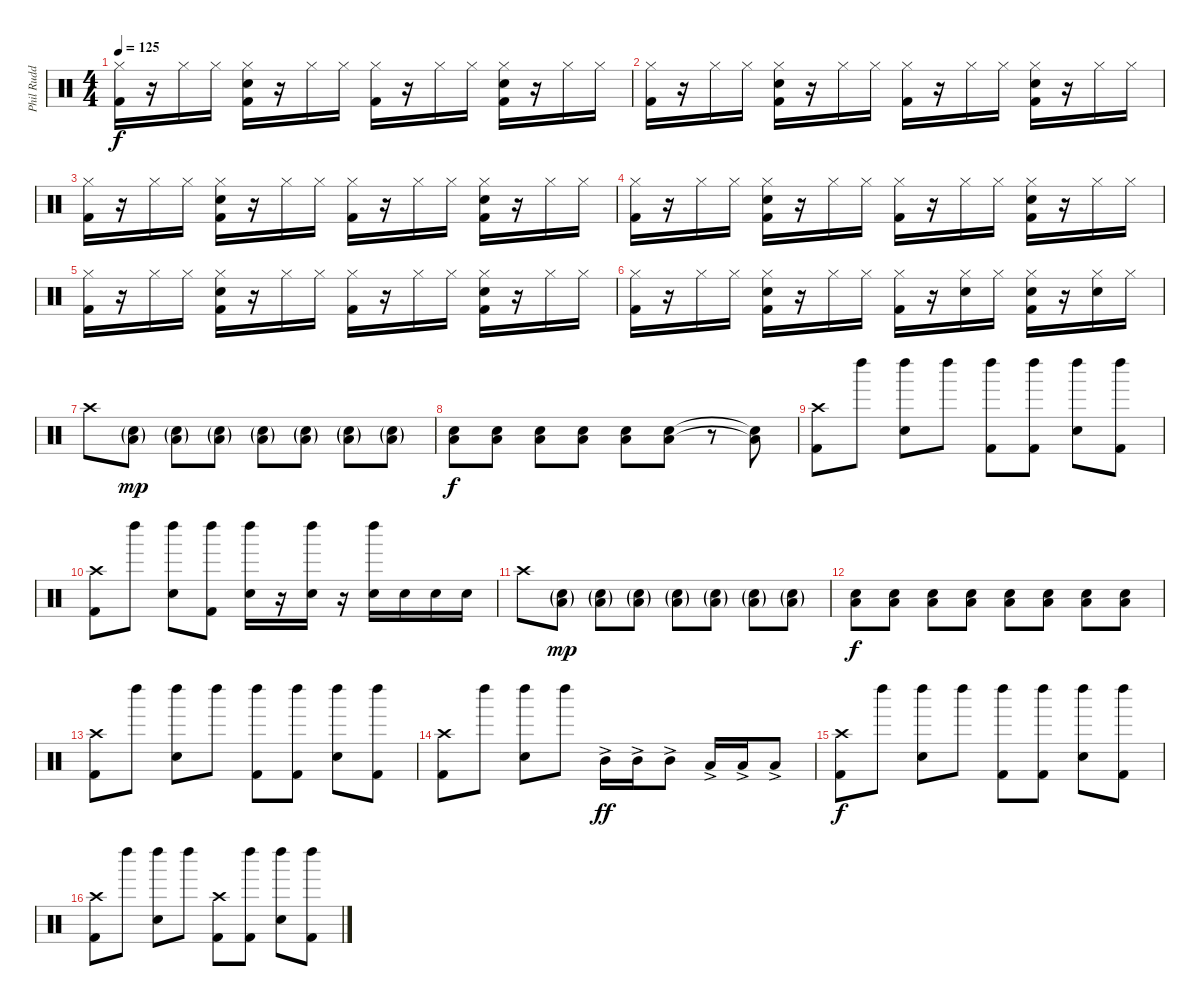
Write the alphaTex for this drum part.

\track ("Phil Rudd" "Phil Rudd") {instrument percussion}
\staff {score}
\articulation defaults
\ts (4 4)
\tempo 125
\clef neutral
\ks c
("Hi-Hat (closed)" "Kick (hit) 2").16{dy f} r.16 "Hi-Hat (closed)".16 "Hi-Hat (closed)".16 ("Hi-Hat (closed)" "Snare (hit) 2" "Kick (hit) 2").16 r.16 "Hi-Hat (closed)".16 "Hi-Hat (closed)".16 ("Hi-Hat (closed)" "Kick (hit) 2").16 r.16 "Hi-Hat (closed)".16 "Hi-Hat (closed)".16 ("Hi-Hat (closed)" "Snare (hit) 2" "Kick (hit) 2").16 r.16 "Hi-Hat (closed)".16 "Hi-Hat (closed)".16 |
("Hi-Hat (closed)" "Kick (hit) 2").16 r.16 "Hi-Hat (closed)".16 "Hi-Hat (closed)".16 ("Hi-Hat (closed)" "Snare (hit) 2" "Kick (hit) 2").16 r.16 "Hi-Hat (closed)".16 "Hi-Hat (closed)".16 ("Hi-Hat (closed)" "Kick (hit) 2").16 r.16 "Hi-Hat (closed)".16 "Hi-Hat (closed)".16 ("Hi-Hat (closed)" "Snare (hit) 2" "Kick (hit) 2").16 r.16 "Hi-Hat (closed)".16 "Hi-Hat (closed)".16 |
("Hi-Hat (closed)" "Kick (hit) 2").16 r.16 "Hi-Hat (closed)".16 "Hi-Hat (closed)".16 ("Hi-Hat (closed)" "Snare (hit) 2" "Kick (hit) 2").16 r.16 "Hi-Hat (closed)".16 "Hi-Hat (closed)".16 ("Hi-Hat (closed)" "Kick (hit) 2").16 r.16 "Hi-Hat (closed)".16 "Hi-Hat (closed)".16 ("Hi-Hat (closed)" "Snare (hit) 2" "Kick (hit) 2").16 r.16 "Hi-Hat (closed)".16 "Hi-Hat (closed)".16 |
("Hi-Hat (closed)" "Kick (hit) 2").16 r.16 "Hi-Hat (closed)".16 "Hi-Hat (closed)".16 ("Hi-Hat (closed)" "Snare (hit) 2" "Kick (hit) 2").16 r.16 "Hi-Hat (closed)".16 "Hi-Hat (closed)".16 ("Hi-Hat (closed)" "Kick (hit) 2").16 r.16 "Hi-Hat (closed)".16 "Hi-Hat (closed)".16 ("Hi-Hat (closed)" "Snare (hit) 2" "Kick (hit) 2").16 r.16 "Hi-Hat (closed)".16 "Hi-Hat (closed)".16 |
("Hi-Hat (closed)" "Kick (hit) 2").16 r.16 "Hi-Hat (closed)".16 "Hi-Hat (closed)".16 ("Hi-Hat (closed)" "Snare (hit) 2" "Kick (hit) 2").16 r.16 "Hi-Hat (closed)".16 "Hi-Hat (closed)".16 ("Hi-Hat (closed)" "Kick (hit) 2").16 r.16 "Hi-Hat (closed)".16 "Hi-Hat (closed)".16 ("Hi-Hat (closed)" "Snare (hit) 2" "Kick (hit) 2").16 r.16 "Hi-Hat (closed)".16 "Hi-Hat (closed)".16 |
("Hi-Hat (closed)" "Kick (hit) 2").16 r.16 "Hi-Hat (closed)".16 "Hi-Hat (closed)".16 ("Hi-Hat (closed)" "Snare (hit) 2" "Kick (hit) 2").16 r.16 "Hi-Hat (closed)".16 "Hi-Hat (closed)".16 ("Hi-Hat (closed)" "Kick (hit) 2").16 r.16 ("Hi-Hat (closed)" "Snare (hit) 2").16 "Hi-Hat (closed)".16 ("Hi-Hat (closed)" "Snare (hit) 2" "Kick (hit) 2").16 r.16 ("Hi-Hat (closed)" "Snare (hit) 2").16 "Hi-Hat (closed)".16 |
"Crash high (hit)".8 ("Snare (hit) 2"{g} "Low Tom (hit)"{g}).8{dy mp} ("Snare (hit) 2"{g} "Low Tom (hit)"{g}).8 ("Snare (hit) 2"{g} "Low Tom (hit)"{g}).8 ("Snare (hit) 2"{g} "Low Tom (hit)"{g}).8 ("Snare (hit) 2"{g} "Low Tom (hit)"{g}).8 ("Snare (hit) 2"{g} "Low Tom (hit)"{g}).8 ("Snare (hit) 2"{g} "Low Tom (hit)"{g}).8 |
("Snare (hit) 2" "Low Tom (hit)").8{dy f} ("Snare (hit) 2" "Low Tom (hit)").8 ("Snare (hit) 2" "Low Tom (hit)").8 ("Snare (hit) 2" "Low Tom (hit)").8 ("Snare (hit) 2" "Low Tom (hit)").8 ("Snare (hit) 2" "Low Tom (hit)").8 r.8 ("Snare (hit) 2"{t} "Low Tom (hit)"{t}).8 |
("Crash high (hit)" "Kick (hit) 2").8 "Left Maraca (hit)".8 ("Left Maraca (hit)" "Snare (hit) 2").8 "Left Maraca (hit)".8 ("Left Maraca (hit)" "Kick (hit) 2").8 ("Left Maraca (hit)" "Kick (hit) 2").8 ("Left Maraca (hit)" "Snare (hit) 2").8 ("Left Maraca (hit)" "Kick (hit) 2").8 |
("Crash high (hit)" "Kick (hit) 2").8 "Left Maraca (hit)".8 ("Left Maraca (hit)" "Snare (hit) 2").8 ("Left Maraca (hit)" "Kick (hit) 2").8 ("Left Maraca (hit)" "Snare (hit) 2").16 r.16 ("Left Maraca (hit)" "Snare (hit) 2").16 r.16 ("Left Maraca (hit)" "Snare (hit) 2").16 "Snare (hit) 2".16 "Snare (hit) 2".16 "Snare (hit) 2".16 |
"Crash high (hit)".8 ("Snare (hit) 2"{g} "Low Tom (hit)"{g}).8{dy mp} ("Snare (hit) 2"{g} "Low Tom (hit)"{g}).8 ("Snare (hit) 2"{g} "Low Tom (hit)"{g}).8 ("Snare (hit) 2"{g} "Low Tom (hit)"{g}).8 ("Snare (hit) 2"{g} "Low Tom (hit)"{g}).8 ("Snare (hit) 2"{g} "Low Tom (hit)"{g}).8 ("Snare (hit) 2"{g} "Low Tom (hit)"{g}).8 |
("Snare (hit) 2" "Low Tom (hit)").8{dy f} ("Snare (hit) 2" "Low Tom (hit)").8 ("Snare (hit) 2" "Low Tom (hit)").8 ("Snare (hit) 2" "Low Tom (hit)").8 ("Snare (hit) 2" "Low Tom (hit)").8 ("Snare (hit) 2" "Low Tom (hit)").8 ("Snare (hit) 2" "Low Tom (hit)").8 ("Snare (hit) 2" "Low Tom (hit)").8 |
("Crash high (hit)" "Kick (hit) 2").8 "Left Maraca (hit)".8 ("Left Maraca (hit)" "Snare (hit) 2").8 "Left Maraca (hit)".8 ("Left Maraca (hit)" "Kick (hit) 2").8 ("Left Maraca (hit)" "Kick (hit) 2").8 ("Left Maraca (hit)" "Snare (hit) 2").8 ("Left Maraca (hit)" "Kick (hit) 2").8 |
("Crash high (hit)" "Kick (hit) 2").8 "Left Maraca (hit)".8 ("Left Maraca (hit)" "Snare (hit) 2").8 "Left Maraca (hit)".8 "Mid Tom (hit)"{ac}.16{dy ff} "Mid Tom (hit)"{ac}.16 "Mid Tom (hit)"{ac}.8 "Low Tom (hit)"{ac}.16 "Low Tom (hit)"{ac}.16 "Low Tom (hit)"{ac}.8 |
("Crash high (hit)" "Kick (hit) 2").8{dy f} "Left Maraca (hit)".8 ("Left Maraca (hit)" "Snare (hit) 2").8 "Left Maraca (hit)".8 ("Left Maraca (hit)" "Kick (hit) 2").8 ("Left Maraca (hit)" "Kick (hit) 2").8 ("Left Maraca (hit)" "Snare (hit) 2").8 ("Left Maraca (hit)" "Kick (hit) 2").8 |
("Crash high (hit)" "Kick (hit) 2").8 "Left Maraca (hit)".8 ("Left Maraca (hit)" "Snare (hit) 2").8 "Left Maraca (hit)".8 ("Crash high (hit)" "Kick (hit) 2").8 ("Left Maraca (hit)" "Kick (hit) 2").8 ("Left Maraca (hit)" "Snare (hit) 2").8 ("Left Maraca (hit)" "Kick (hit) 2").8
